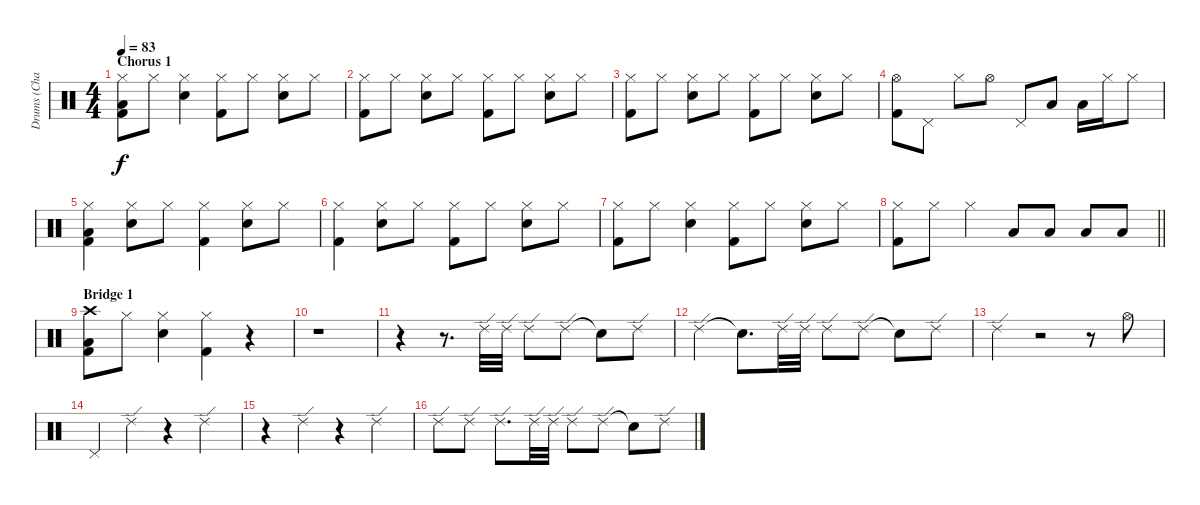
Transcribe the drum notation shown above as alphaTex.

\track ("Drums (Charlie)" "Drums (Cha") {instrument percussion}
\staff {score}
\articulation defaults
\ts (4 4)
\section ("" "Chorus 1")
\tempo 83
\clef neutral
\ks c
("Hi-Hat (closed)" "Low Floor Tom (hit)" "Kick (hit) 2").8{dy f} "Hi-Hat (closed)".8 ("Hi-Hat (closed)" "Snare (hit) 2").4 ("Hi-Hat (closed)" "Kick (hit) 2").8 "Hi-Hat (closed)".8 ("Hi-Hat (closed)" "Snare (hit) 2").8 "Hi-Hat (closed)".8 |
("Hi-Hat (closed)" "Kick (hit) 2").8 "Hi-Hat (closed)".8 ("Hi-Hat (closed)" "Snare (hit) 2").8 "Hi-Hat (closed)".8 ("Hi-Hat (closed)" "Kick (hit) 2").8 "Hi-Hat (closed)".8 ("Hi-Hat (closed)" "Snare (hit) 2").8 "Hi-Hat (closed)".8 |
("Hi-Hat (closed)" "Kick (hit) 2").8 "Hi-Hat (closed)".8 ("Hi-Hat (closed)" "Snare (hit) 2").8 "Hi-Hat (closed)".8 ("Hi-Hat (closed)" "Kick (hit) 2").8 "Hi-Hat (closed)".8 ("Hi-Hat (closed)" "Snare (hit) 2").8 "Hi-Hat (closed)".8 |
("Hi-Hat (open)" "Kick (hit) 2").8 "Pedal Hi-Hat (hit)".8 "Hi-Hat (closed)".8 "Hi-Hat (open)".8 "Pedal Hi-Hat (hit)".8 "Low Tom (hit)".8 "Low Floor Tom (hit)".16 "Hi-Hat (closed)".16 "Hi-Hat (closed)".8 |
("Hi-Hat (closed)" "Low Floor Tom (hit)" "Kick (hit) 2").4 ("Hi-Hat (closed)" "Snare (hit) 2").8 "Hi-Hat (closed)".8 ("Hi-Hat (closed)" "Kick (hit) 2").4 ("Hi-Hat (closed)" "Snare (hit) 2").8 "Hi-Hat (closed)".8 |
("Hi-Hat (closed)" "Kick (hit) 2").4 ("Hi-Hat (closed)" "Snare (hit) 2").8 "Hi-Hat (closed)".8 ("Hi-Hat (closed)" "Kick (hit) 2").8 "Hi-Hat (closed)".8 ("Hi-Hat (closed)" "Snare (hit) 2").8 "Hi-Hat (closed)".8 |
("Hi-Hat (closed)" "Kick (hit) 2").8 "Hi-Hat (closed)".8 ("Hi-Hat (closed)" "Snare (hit) 2").4 ("Hi-Hat (closed)" "Kick (hit) 2").8 "Hi-Hat (closed)".8 ("Hi-Hat (closed)" "Snare (hit) 2").8 "Hi-Hat (closed)".8 |
\barLineRight lightlight
("Hi-Hat (closed)" "Kick (hit) 2").8 "Hi-Hat (closed)".8 "Hi-Hat (closed)".4 "Low Tom (hit)".8 "Low Floor Tom (hit)".8 "Low Floor Tom (hit)".8 "Low Floor Tom (hit)".8 |
\section ("" "Bridge 1")
("Crash high (hit)" "Low Floor Tom (hit)" "Kick (hit) 2").8 "Hi-Hat (closed)".8 ("Hi-Hat (closed)" "Snare (hit) 2").4 ("Hi-Hat (closed)" "Kick (hit) 2").4 r.4 |
r.1 |
r.4 r.8{d} "Ride (edge) 2".32 "Ride (edge) 2".32 "Ride (edge) 2".8 "Ride (edge) 2".8 "Snare (hit)"{t}.8 "Ride (edge) 2".8 |
"Ride (edge) 2".4 "Snare (hit)"{t}.8{d} "Ride (edge) 2".32 "Ride (edge) 2".32 "Ride (edge) 2".8 "Ride (edge) 2".8 "Snare (hit)"{t}.8 "Ride (edge) 2".8 |
"Ride (edge) 2".4 r.2 r.8 "Hi-Hat (open)".8 |
"Pedal Hi-Hat (hit)".4 "Ride (edge) 2".4 r.4 "Ride (edge) 2".4 |
r.4 "Ride (edge) 2".4 r.4 "Ride (edge) 2".4 |
"Ride (edge) 2".8 "Ride (edge) 2".8 "Ride (edge) 2".8{d} "Ride (edge) 2".32 "Ride (edge) 2".32 "Ride (edge) 2".8 "Ride (edge) 2".8 "Snare (hit)"{t}.8 "Ride (edge) 2".8
